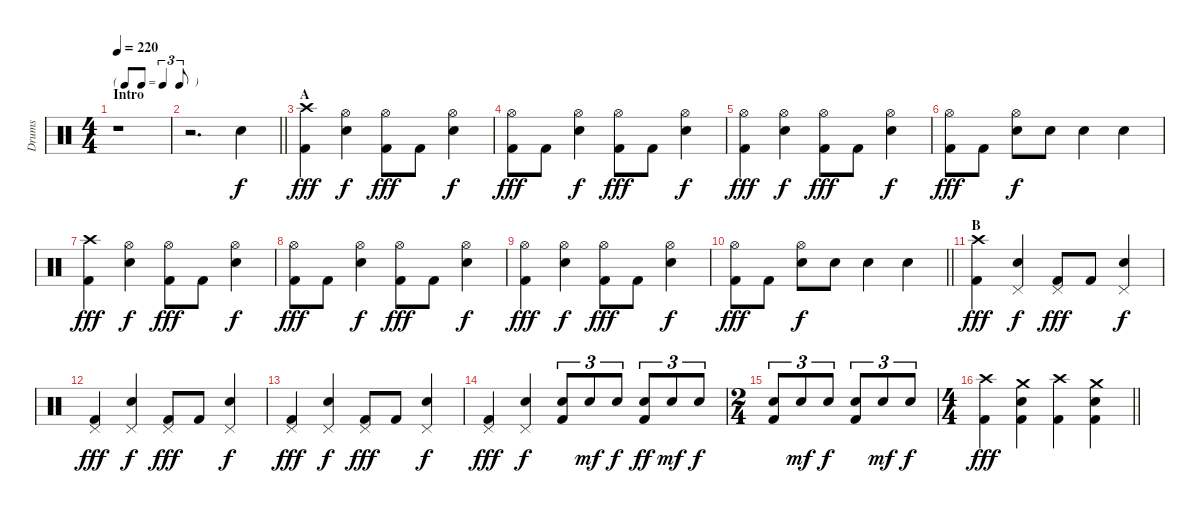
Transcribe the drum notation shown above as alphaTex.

\track ("Drums" "Drums") {instrument percussion}
\staff {score}
\articulation defaults
\ts (4 4)
\tf triplet8th
\section ("" "Intro")
\tempo 220
\clef neutral
\ks c
r.1{dy f} |
\barLineRight lightlight
r.2{d} "Electric Snare (hit)".4 |
\section ("" "A")
("Crash high (hit)" "Kick (hit) 2").4{dy fff} ("Hi-Hat (open)" "Electric Snare (hit)").4{dy f} ("Hi-Hat (open)" "Kick (hit) 2").8{dy fff} "Kick (hit) 2".8 ("Hi-Hat (open)" "Electric Snare (hit)").4{dy f} |
("Hi-Hat (open)" "Kick (hit) 2").8{dy fff} "Kick (hit) 2".8 ("Hi-Hat (open)" "Electric Snare (hit)").4{dy f} ("Hi-Hat (open)" "Kick (hit) 2").8{dy fff} "Kick (hit) 2".8 ("Hi-Hat (open)" "Electric Snare (hit)").4{dy f} |
("Hi-Hat (open)" "Kick (hit) 2").4{dy fff} ("Hi-Hat (open)" "Electric Snare (hit)").4{dy f} ("Hi-Hat (open)" "Kick (hit) 2").8{dy fff} "Kick (hit) 2".8 ("Hi-Hat (open)" "Electric Snare (hit)").4{dy f} |
("Hi-Hat (open)" "Kick (hit) 2").8{dy fff} "Kick (hit) 2".8 ("Hi-Hat (open)" "Electric Snare (hit)").8{dy f} "Electric Snare (hit)".8 "Electric Snare (hit)".4 "Electric Snare (hit)".4 |
("Crash high (hit)" "Kick (hit) 2").4{dy fff} ("Hi-Hat (open)" "Electric Snare (hit)").4{dy f} ("Hi-Hat (open)" "Kick (hit) 2").8{dy fff} "Kick (hit) 2".8 ("Hi-Hat (open)" "Electric Snare (hit)").4{dy f} |
("Hi-Hat (open)" "Kick (hit) 2").8{dy fff} "Kick (hit) 2".8 ("Hi-Hat (open)" "Electric Snare (hit)").4{dy f} ("Hi-Hat (open)" "Kick (hit) 2").8{dy fff} "Kick (hit) 2".8 ("Hi-Hat (open)" "Electric Snare (hit)").4{dy f} |
("Hi-Hat (open)" "Kick (hit) 2").4{dy fff} ("Hi-Hat (open)" "Electric Snare (hit)").4{dy f} ("Hi-Hat (open)" "Kick (hit) 2").8{dy fff} "Kick (hit) 2".8 ("Hi-Hat (open)" "Electric Snare (hit)").4{dy f} |
\barLineRight lightlight
("Hi-Hat (open)" "Kick (hit) 2").8{dy fff} "Kick (hit) 2".8 ("Hi-Hat (open)" "Electric Snare (hit)").8{dy f} "Electric Snare (hit)".8 "Electric Snare (hit)".4 "Electric Snare (hit)".4 |
\section ("" "B")
("Crash high (hit)" "Kick (hit) 2").4{dy fff} ("Pedal Hi-Hat (hit)" "Electric Snare (hit)").4{dy f} ("Pedal Hi-Hat (hit)" "Kick (hit) 2").8{dy fff} "Kick (hit) 2".8 ("Pedal Hi-Hat (hit)" "Electric Snare (hit)").4{dy f} |
("Pedal Hi-Hat (hit)" "Kick (hit) 2").4{dy fff} ("Pedal Hi-Hat (hit)" "Electric Snare (hit)").4{dy f} ("Pedal Hi-Hat (hit)" "Kick (hit) 2").8{dy fff} "Kick (hit) 2".8 ("Pedal Hi-Hat (hit)" "Electric Snare (hit)").4{dy f} |
("Pedal Hi-Hat (hit)" "Kick (hit) 2").4{dy fff} ("Pedal Hi-Hat (hit)" "Electric Snare (hit)").4{dy f} ("Pedal Hi-Hat (hit)" "Kick (hit) 2").8{dy fff} "Kick (hit) 2".8 ("Pedal Hi-Hat (hit)" "Electric Snare (hit)").4{dy f} |
("Pedal Hi-Hat (hit)" "Kick (hit) 2").4{dy fff} ("Pedal Hi-Hat (hit)" "Electric Snare (hit)").4{dy f} ("Electric Snare (hit)" "Kick (hit) 2").8{tu (3 2)} "Electric Snare (hit)".8{tu (3 2) dy mf} "Electric Snare (hit)".8{tu (3 2) dy f} ("Electric Snare (hit)" "Kick (hit) 2").8{tu (3 2) dy ff} "Electric Snare (hit)".8{tu (3 2) dy mf} "Electric Snare (hit)".8{tu (3 2) dy f} |
\ts (2 4)
("Electric Snare (hit)" "Kick (hit) 2").8{tu (3 2)} "Electric Snare (hit)".8{tu (3 2) dy mf} "Electric Snare (hit)".8{tu (3 2) dy f} ("Electric Snare (hit)" "Kick (hit) 2").8{tu (3 2)} "Electric Snare (hit)".8{tu (3 2) dy mf} "Electric Snare (hit)".8{tu (3 2) dy f} |
\ts (4 4)
\barLineRight lightlight
("Crash high (hit)" "Kick (hit) 2").4{dy fff} ("Crash medium (hit)" "Electric Snare (hit)" "Kick (hit) 2").4 ("Crash high (hit)" "Kick (hit) 2").4 ("Crash medium (hit)" "Electric Snare (hit)" "Kick (hit) 2").4
